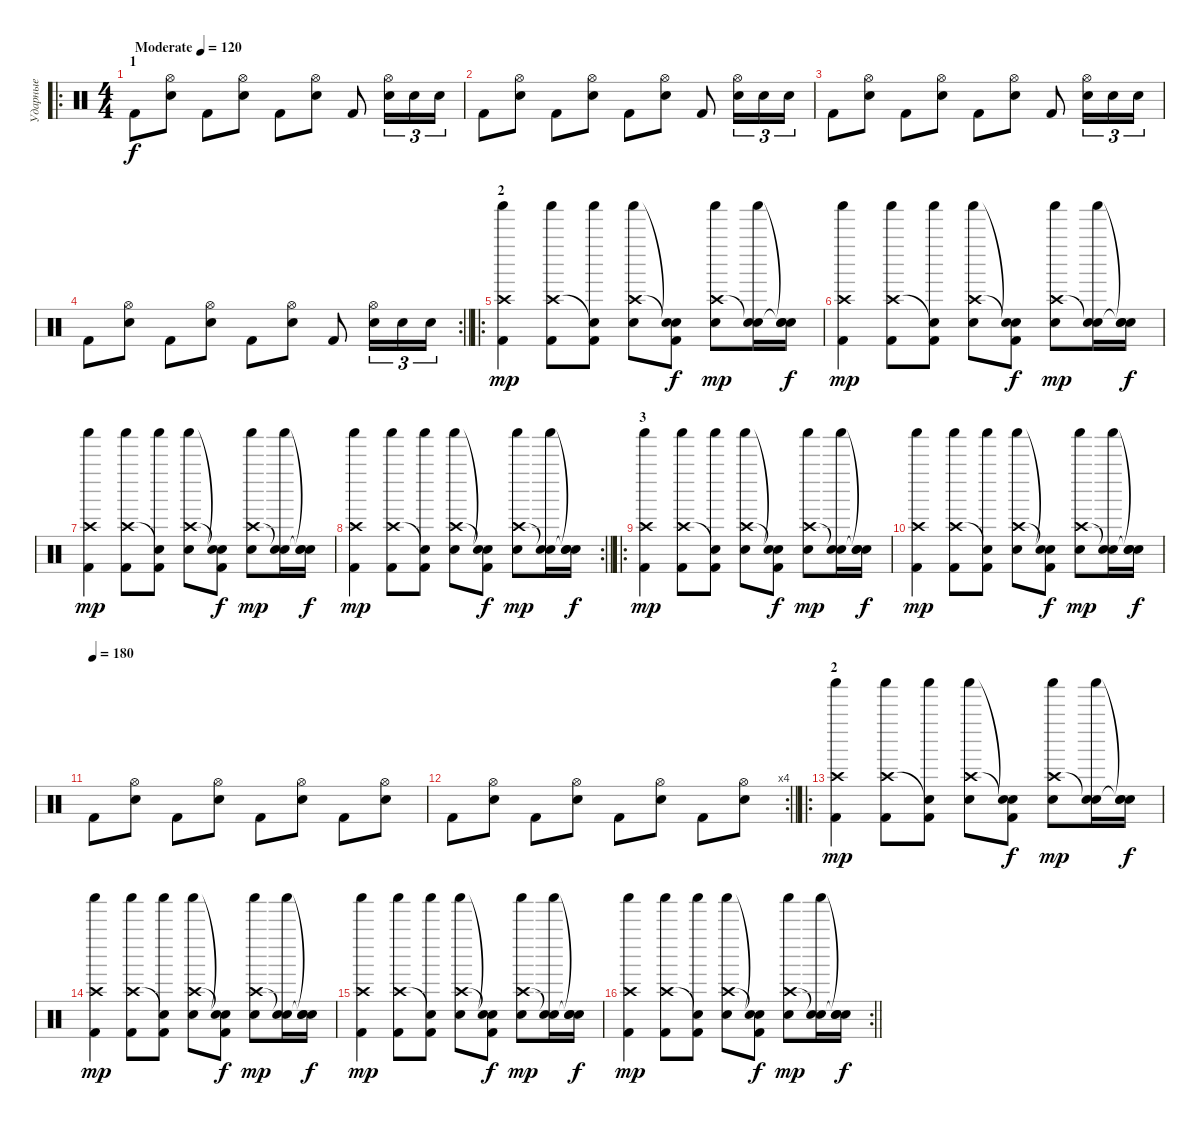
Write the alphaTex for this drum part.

\track ("Ударные" "Ударные") {instrument percussion}
\staff {score}
\articulation defaults
\ro
\ts (4 4)
\section ("" "1")
\tempo (120 "Moderate")
\tempo 180
\tempo (120 "Moderate")
\clef neutral
\ks c "Kick (hit) 2".8{dy f}
("Hi-Hat (open)" "Electric Snare (hit)").8 "Kick (hit) 2".8 ("Hi-Hat (open)" "Electric Snare (hit)").8 "Kick (hit) 2".8 ("Hi-Hat (open)" "Electric Snare (hit)").8 "Kick (hit) 2".8 ("Hi-Hat (open)" "Electric Snare (hit)").16{tu (3 2)} "Electric Snare (hit)".16{tu (3 2)} "Electric Snare (hit)".16{tu (3 2)} |
"Kick (hit) 2".8 ("Hi-Hat (open)" "Electric Snare (hit)").8 "Kick (hit) 2".8 ("Hi-Hat (open)" "Electric Snare (hit)").8 "Kick (hit) 2".8 ("Hi-Hat (open)" "Electric Snare (hit)").8 "Kick (hit) 2".8 ("Hi-Hat (open)" "Electric Snare (hit)").16{tu (3 2)} "Electric Snare (hit)".16{tu (3 2)} "Electric Snare (hit)".16{tu (3 2)} |
"Kick (hit) 2".8 ("Hi-Hat (open)" "Electric Snare (hit)").8 "Kick (hit) 2".8 ("Hi-Hat (open)" "Electric Snare (hit)").8 "Kick (hit) 2".8 ("Hi-Hat (open)" "Electric Snare (hit)").8 "Kick (hit) 2".8 ("Hi-Hat (open)" "Electric Snare (hit)").16{tu (3 2)} "Electric Snare (hit)".16{tu (3 2)} "Electric Snare (hit)".16{tu (3 2)} |
\rc 2
\barLineRight lightlight "Kick (hit) 2".8
("Hi-Hat (open)" "Electric Snare (hit)").8 "Kick (hit) 2".8 ("Hi-Hat (open)" "Electric Snare (hit)").8 "Kick (hit) 2".8 ("Hi-Hat (open)" "Electric Snare (hit)").8 "Kick (hit) 2".8 ("Hi-Hat (open)" "Electric Snare (hit)").16{tu (3 2)} "Electric Snare (hit)".16{tu (3 2)} "Electric Snare (hit)".16{tu (3 2)} |
\ro
\section ("" "2")
("Crash high (hit)" "Shaker (hit)" "Kick (hit) 2").4{dy mp} ("Crash high (hit)" "Shaker (hit)" "Kick (hit) 2").8 ("Snare (hit)"{t} "Shaker (hit)" "Kick (hit) 2").8 ("Crash high (hit)" "Shaker (hit)" "Snare (hit) 2").8 ("Snare (hit)"{t} "Snare (hit)"{t} "Kick (hit) 2").8{dy f} ("Crash high (hit)" "Shaker (hit)" "Snare (hit) 2").8{dy mp} ("Snare (hit)"{t} "Shaker (hit)" "Snare (hit) 2").16 ("Snare (hit)"{t} "Snare (hit)"{t} "Snare (hit) 2").16{dy f} |
("Crash high (hit)" "Shaker (hit)" "Kick (hit) 2").4{dy mp} ("Crash high (hit)" "Shaker (hit)" "Kick (hit) 2").8 ("Snare (hit)"{t} "Shaker (hit)" "Kick (hit) 2").8 ("Crash high (hit)" "Shaker (hit)" "Snare (hit) 2").8 ("Snare (hit)"{t} "Snare (hit)"{t} "Kick (hit) 2").8{dy f} ("Crash high (hit)" "Shaker (hit)" "Snare (hit) 2").8{dy mp} ("Snare (hit)"{t} "Shaker (hit)" "Snare (hit) 2").16 ("Snare (hit)"{t} "Snare (hit)"{t} "Snare (hit) 2").16{dy f} |
("Crash high (hit)" "Shaker (hit)" "Kick (hit) 2").4{dy mp} ("Crash high (hit)" "Shaker (hit)" "Kick (hit) 2").8 ("Snare (hit)"{t} "Shaker (hit)" "Kick (hit) 2").8 ("Crash high (hit)" "Shaker (hit)" "Snare (hit) 2").8 ("Snare (hit)"{t} "Snare (hit)"{t} "Kick (hit) 2").8{dy f} ("Crash high (hit)" "Shaker (hit)" "Snare (hit) 2").8{dy mp} ("Snare (hit)"{t} "Shaker (hit)" "Snare (hit) 2").16 ("Snare (hit)"{t} "Snare (hit)"{t} "Snare (hit) 2").16{dy f} |
\rc 2
\barLineRight lightlight
("Crash high (hit)" "Shaker (hit)" "Kick (hit) 2").4{dy mp} ("Crash high (hit)" "Shaker (hit)" "Kick (hit) 2").8 ("Snare (hit)"{t} "Shaker (hit)" "Kick (hit) 2").8 ("Crash high (hit)" "Shaker (hit)" "Snare (hit) 2").8 ("Snare (hit)"{t} "Snare (hit)"{t} "Kick (hit) 2").8{dy f} ("Crash high (hit)" "Shaker (hit)" "Snare (hit) 2").8{dy mp} ("Snare (hit)"{t} "Shaker (hit)" "Snare (hit) 2").16 ("Snare (hit)"{t} "Snare (hit)"{t} "Snare (hit) 2").16{dy f} |
\ro
\section ("" "3")
("Crash high (hit)" "Shaker (hit)" "Kick (hit) 2").4{dy mp} ("Crash high (hit)" "Shaker (hit)" "Kick (hit) 2").8 ("Snare (hit)"{t} "Shaker (hit)" "Kick (hit) 2").8 ("Crash high (hit)" "Shaker (hit)" "Snare (hit) 2").8 ("Snare (hit)"{t} "Snare (hit)"{t} "Kick (hit) 2").8{dy f} ("Crash high (hit)" "Shaker (hit)" "Snare (hit) 2").8{dy mp} ("Snare (hit)"{t} "Shaker (hit)" "Snare (hit) 2").16 ("Snare (hit)"{t} "Snare (hit)"{t} "Snare (hit) 2").16{dy f} |
("Crash high (hit)" "Shaker (hit)" "Kick (hit) 2").4{dy mp} ("Crash high (hit)" "Shaker (hit)" "Kick (hit) 2").8 ("Snare (hit)"{t} "Shaker (hit)" "Kick (hit) 2").8 ("Crash high (hit)" "Shaker (hit)" "Snare (hit) 2").8 ("Snare (hit)"{t} "Snare (hit)"{t} "Kick (hit) 2").8{dy f} ("Crash high (hit)" "Shaker (hit)" "Snare (hit) 2").8{dy mp} ("Snare (hit)"{t} "Shaker (hit)" "Snare (hit) 2").16 ("Snare (hit)"{t} "Snare (hit)"{t} "Snare (hit) 2").16{dy f} |
\tempo (180)
"Kick (hit) 2".8 ("Hi-Hat (open)" "Electric Snare (hit)").8 "Kick (hit) 2".8 ("Hi-Hat (open)" "Electric Snare (hit)").8 "Kick (hit) 2".8 ("Hi-Hat (open)" "Electric Snare (hit)").8 "Kick (hit) 2".8 ("Hi-Hat (open)" "Electric Snare (hit)").8 |
\rc 4
\barLineRight lightlight "Kick (hit) 2".8
("Hi-Hat (open)" "Electric Snare (hit)").8 "Kick (hit) 2".8 ("Hi-Hat (open)" "Electric Snare (hit)").8 "Kick (hit) 2".8 ("Hi-Hat (open)" "Electric Snare (hit)").8 "Kick (hit) 2".8 ("Hi-Hat (open)" "Electric Snare (hit)").8 |
\ro
\section ("" "2")
("Crash high (hit)" "Shaker (hit)" "Kick (hit) 2").4{dy mp} ("Crash high (hit)" "Shaker (hit)" "Kick (hit) 2").8 ("Snare (hit)"{t} "Shaker (hit)" "Kick (hit) 2").8 ("Crash high (hit)" "Shaker (hit)" "Snare (hit) 2").8 ("Snare (hit)"{t} "Snare (hit)"{t} "Kick (hit) 2").8{dy f} ("Crash high (hit)" "Shaker (hit)" "Snare (hit) 2").8{dy mp} ("Snare (hit)"{t} "Shaker (hit)" "Snare (hit) 2").16 ("Snare (hit)"{t} "Snare (hit)"{t} "Snare (hit) 2").16{dy f} |
("Crash high (hit)" "Shaker (hit)" "Kick (hit) 2").4{dy mp} ("Crash high (hit)" "Shaker (hit)" "Kick (hit) 2").8 ("Snare (hit)"{t} "Shaker (hit)" "Kick (hit) 2").8 ("Crash high (hit)" "Shaker (hit)" "Snare (hit) 2").8 ("Snare (hit)"{t} "Snare (hit)"{t} "Kick (hit) 2").8{dy f} ("Crash high (hit)" "Shaker (hit)" "Snare (hit) 2").8{dy mp} ("Snare (hit)"{t} "Shaker (hit)" "Snare (hit) 2").16 ("Snare (hit)"{t} "Snare (hit)"{t} "Snare (hit) 2").16{dy f} |
("Crash high (hit)" "Shaker (hit)" "Kick (hit) 2").4{dy mp} ("Crash high (hit)" "Shaker (hit)" "Kick (hit) 2").8 ("Snare (hit)"{t} "Shaker (hit)" "Kick (hit) 2").8 ("Crash high (hit)" "Shaker (hit)" "Snare (hit) 2").8 ("Snare (hit)"{t} "Snare (hit)"{t} "Kick (hit) 2").8{dy f} ("Crash high (hit)" "Shaker (hit)" "Snare (hit) 2").8{dy mp} ("Snare (hit)"{t} "Shaker (hit)" "Snare (hit) 2").16 ("Snare (hit)"{t} "Snare (hit)"{t} "Snare (hit) 2").16{dy f} |
\rc 2
\barLineRight lightlight
("Crash high (hit)" "Shaker (hit)" "Kick (hit) 2").4{dy mp} ("Crash high (hit)" "Shaker (hit)" "Kick (hit) 2").8 ("Snare (hit)"{t} "Shaker (hit)" "Kick (hit) 2").8 ("Crash high (hit)" "Shaker (hit)" "Snare (hit) 2").8 ("Snare (hit)"{t} "Snare (hit)"{t} "Kick (hit) 2").8{dy f} ("Crash high (hit)" "Shaker (hit)" "Snare (hit) 2").8{dy mp} ("Snare (hit)"{t} "Shaker (hit)" "Snare (hit) 2").16 ("Snare (hit)"{t} "Snare (hit)"{t} "Snare (hit) 2").16{dy f}
